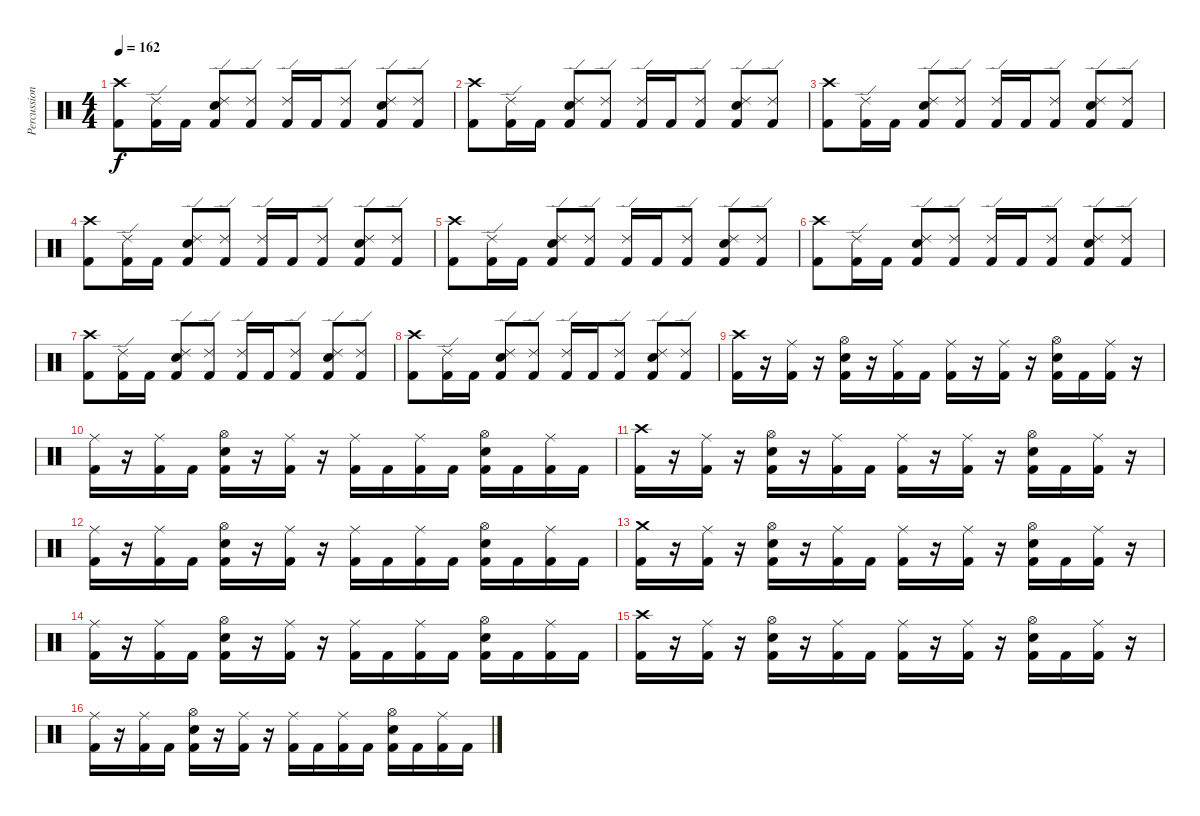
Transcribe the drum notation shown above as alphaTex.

\track ("Percussion" "Percussion") {instrument percussion}
\staff {score}
\articulation defaults
\ts (4 4)
\tempo 162
\clef neutral
\ks c
("Crash high (hit)" "Kick (hit) 2").8{dy f} ("Ride (edge) 2" "Kick (hit) 2").16 "Kick (hit) 2".16 ("Ride (edge) 2" "Electric Snare (hit)" "Kick (hit) 2").8 ("Ride (edge) 2" "Kick (hit) 2").8 ("Ride (edge) 2" "Kick (hit) 2").16 "Kick (hit) 2".16 ("Ride (edge) 2" "Kick (hit) 2").8 ("Ride (edge) 2" "Electric Snare (hit)" "Kick (hit) 2").8 ("Ride (edge) 2" "Kick (hit) 2").8 |
("Crash high (hit)" "Kick (hit) 2").8 ("Ride (edge) 2" "Kick (hit) 2").16 "Kick (hit) 2".16 ("Ride (edge) 2" "Electric Snare (hit)" "Kick (hit) 2").8 ("Ride (edge) 2" "Kick (hit) 2").8 ("Ride (edge) 2" "Kick (hit) 2").16 "Kick (hit) 2".16 ("Ride (edge) 2" "Kick (hit) 2").8 ("Ride (edge) 2" "Electric Snare (hit)" "Kick (hit) 2").8 ("Ride (edge) 2" "Kick (hit) 2").8 |
("Crash high (hit)" "Kick (hit) 2").8 ("Ride (edge) 2" "Kick (hit) 2").16 "Kick (hit) 2".16 ("Ride (edge) 2" "Electric Snare (hit)" "Kick (hit) 2").8 ("Ride (edge) 2" "Kick (hit) 2").8 ("Ride (edge) 2" "Kick (hit) 2").16 "Kick (hit) 2".16 ("Ride (edge) 2" "Kick (hit) 2").8 ("Ride (edge) 2" "Electric Snare (hit)" "Kick (hit) 2").8 ("Ride (edge) 2" "Kick (hit) 2").8 |
("Crash high (hit)" "Kick (hit) 2").8 ("Ride (edge) 2" "Kick (hit) 2").16 "Kick (hit) 2".16 ("Ride (edge) 2" "Electric Snare (hit)" "Kick (hit) 2").8 ("Ride (edge) 2" "Kick (hit) 2").8 ("Ride (edge) 2" "Kick (hit) 2").16 "Kick (hit) 2".16 ("Ride (edge) 2" "Kick (hit) 2").8 ("Ride (edge) 2" "Electric Snare (hit)" "Kick (hit) 2").8 ("Ride (edge) 2" "Kick (hit) 2").8 |
("Crash high (hit)" "Kick (hit) 2").8 ("Ride (edge) 2" "Kick (hit) 2").16 "Kick (hit) 2".16 ("Ride (edge) 2" "Electric Snare (hit)" "Kick (hit) 2").8 ("Ride (edge) 2" "Kick (hit) 2").8 ("Ride (edge) 2" "Kick (hit) 2").16 "Kick (hit) 2".16 ("Ride (edge) 2" "Kick (hit) 2").8 ("Ride (edge) 2" "Electric Snare (hit)" "Kick (hit) 2").8 ("Ride (edge) 2" "Kick (hit) 2").8 |
("Crash high (hit)" "Kick (hit) 2").8 ("Ride (edge) 2" "Kick (hit) 2").16 "Kick (hit) 2".16 ("Ride (edge) 2" "Electric Snare (hit)" "Kick (hit) 2").8 ("Ride (edge) 2" "Kick (hit) 2").8 ("Ride (edge) 2" "Kick (hit) 2").16 "Kick (hit) 2".16 ("Ride (edge) 2" "Kick (hit) 2").8 ("Ride (edge) 2" "Electric Snare (hit)" "Kick (hit) 2").8 ("Ride (edge) 2" "Kick (hit) 2").8 |
("Crash high (hit)" "Kick (hit) 2").8 ("Ride (edge) 2" "Kick (hit) 2").16 "Kick (hit) 2".16 ("Ride (edge) 2" "Electric Snare (hit)" "Kick (hit) 2").8 ("Ride (edge) 2" "Kick (hit) 2").8 ("Ride (edge) 2" "Kick (hit) 2").16 "Kick (hit) 2".16 ("Ride (edge) 2" "Kick (hit) 2").8 ("Ride (edge) 2" "Electric Snare (hit)" "Kick (hit) 2").8 ("Ride (edge) 2" "Kick (hit) 2").8 |
("Crash high (hit)" "Kick (hit) 2").8 ("Ride (edge) 2" "Kick (hit) 2").16 "Kick (hit) 2".16 ("Ride (edge) 2" "Electric Snare (hit)" "Kick (hit) 2").8 ("Ride (edge) 2" "Kick (hit) 2").8 ("Ride (edge) 2" "Kick (hit) 2").16 "Kick (hit) 2".16 ("Ride (edge) 2" "Kick (hit) 2").8 ("Ride (edge) 2" "Electric Snare (hit)" "Kick (hit) 2").8 ("Ride (edge) 2" "Kick (hit) 2").8 |
("Crash high (hit)" "Kick (hit) 2").16 r.16 ("Ride (middle)" "Kick (hit) 2").16 r.16 ("Hi-Hat (open)" "Electric Snare (hit)" "Kick (hit) 2").16 r.16 ("Ride (middle)" "Kick (hit) 2").16 "Kick (hit) 2".16 ("Ride (middle)" "Kick (hit) 2").16 r.16 ("Ride (middle)" "Kick (hit) 2").16 r.16 ("Hi-Hat (open)" "Electric Snare (hit)" "Kick (hit) 2").16 "Kick (hit) 2".16 ("Ride (middle)" "Kick (hit) 2").16 r.16 |
("Ride (middle)" "Kick (hit) 2").16 r.16 ("Ride (middle)" "Kick (hit) 2").16 "Kick (hit) 2".16 ("Hi-Hat (open)" "Electric Snare (hit)" "Kick (hit) 2").16 r.16 ("Ride (middle)" "Kick (hit) 2").16 r.16 ("Ride (middle)" "Kick (hit) 2").16 "Kick (hit) 2".16 ("Ride (middle)" "Kick (hit) 2").16 "Kick (hit) 2".16 ("Hi-Hat (open)" "Electric Snare (hit)" "Kick (hit) 2").16 "Kick (hit) 2".16 ("Ride (middle)" "Kick (hit) 2").16 "Kick (hit) 2".16 |
("Crash high (hit)" "Kick (hit) 2").16 r.16 ("Ride (middle)" "Kick (hit) 2").16 r.16 ("Hi-Hat (open)" "Electric Snare (hit)" "Kick (hit) 2").16 r.16 ("Ride (middle)" "Kick (hit) 2").16 "Kick (hit) 2".16 ("Ride (middle)" "Kick (hit) 2").16 r.16 ("Ride (middle)" "Kick (hit) 2").16 r.16 ("Hi-Hat (open)" "Electric Snare (hit)" "Kick (hit) 2").16 "Kick (hit) 2".16 ("Ride (middle)" "Kick (hit) 2").16 r.16 |
("Ride (middle)" "Kick (hit) 2").16 r.16 ("Ride (middle)" "Kick (hit) 2").16 "Kick (hit) 2".16 ("Hi-Hat (open)" "Electric Snare (hit)" "Kick (hit) 2").16 r.16 ("Ride (middle)" "Kick (hit) 2").16 r.16 ("Ride (middle)" "Kick (hit) 2").16 "Kick (hit) 2".16 ("Ride (middle)" "Kick (hit) 2").16 "Kick (hit) 2".16 ("Hi-Hat (open)" "Electric Snare (hit)" "Kick (hit) 2").16 "Kick (hit) 2".16 ("Ride (middle)" "Kick (hit) 2").16 "Kick (hit) 2".16 |
("Crash medium (hit)" "Kick (hit) 2").16 r.16 ("Ride (middle)" "Kick (hit) 2").16 r.16 ("Hi-Hat (open)" "Electric Snare (hit)" "Kick (hit) 2").16 r.16 ("Ride (middle)" "Kick (hit) 2").16 "Kick (hit) 2".16 ("Ride (middle)" "Kick (hit) 2").16 r.16 ("Ride (middle)" "Kick (hit) 2").16 r.16 ("Hi-Hat (open)" "Electric Snare (hit)" "Kick (hit) 2").16 "Kick (hit) 2".16 ("Ride (middle)" "Kick (hit) 2").16 r.16 |
("Ride (middle)" "Kick (hit) 2").16 r.16 ("Ride (middle)" "Kick (hit) 2").16 "Kick (hit) 2".16 ("Hi-Hat (open)" "Electric Snare (hit)" "Kick (hit) 2").16 r.16 ("Ride (middle)" "Kick (hit) 2").16 r.16 ("Ride (middle)" "Kick (hit) 2").16 "Kick (hit) 2".16 ("Ride (middle)" "Kick (hit) 2").16 "Kick (hit) 2".16 ("Hi-Hat (open)" "Electric Snare (hit)" "Kick (hit) 2").16 "Kick (hit) 2".16 ("Ride (middle)" "Kick (hit) 2").16 "Kick (hit) 2".16 |
("Crash high (hit)" "Kick (hit) 2").16 r.16 ("Ride (middle)" "Kick (hit) 2").16 r.16 ("Hi-Hat (open)" "Electric Snare (hit)" "Kick (hit) 2").16 r.16 ("Ride (middle)" "Kick (hit) 2").16 "Kick (hit) 2".16 ("Ride (middle)" "Kick (hit) 2").16 r.16 ("Ride (middle)" "Kick (hit) 2").16 r.16 ("Hi-Hat (open)" "Electric Snare (hit)" "Kick (hit) 2").16 "Kick (hit) 2".16 ("Ride (middle)" "Kick (hit) 2").16 r.16 |
("Ride (middle)" "Kick (hit) 2").16 r.16 ("Ride (middle)" "Kick (hit) 2").16 "Kick (hit) 2".16 ("Hi-Hat (open)" "Electric Snare (hit)" "Kick (hit) 2").16 r.16 ("Ride (middle)" "Kick (hit) 2").16 r.16 ("Ride (middle)" "Kick (hit) 2").16 "Kick (hit) 2".16 ("Ride (middle)" "Kick (hit) 2").16 "Kick (hit) 2".16 ("Hi-Hat (open)" "Electric Snare (hit)" "Kick (hit) 2").16 "Kick (hit) 2".16 ("Ride (middle)" "Kick (hit) 2").16 "Kick (hit) 2".16
